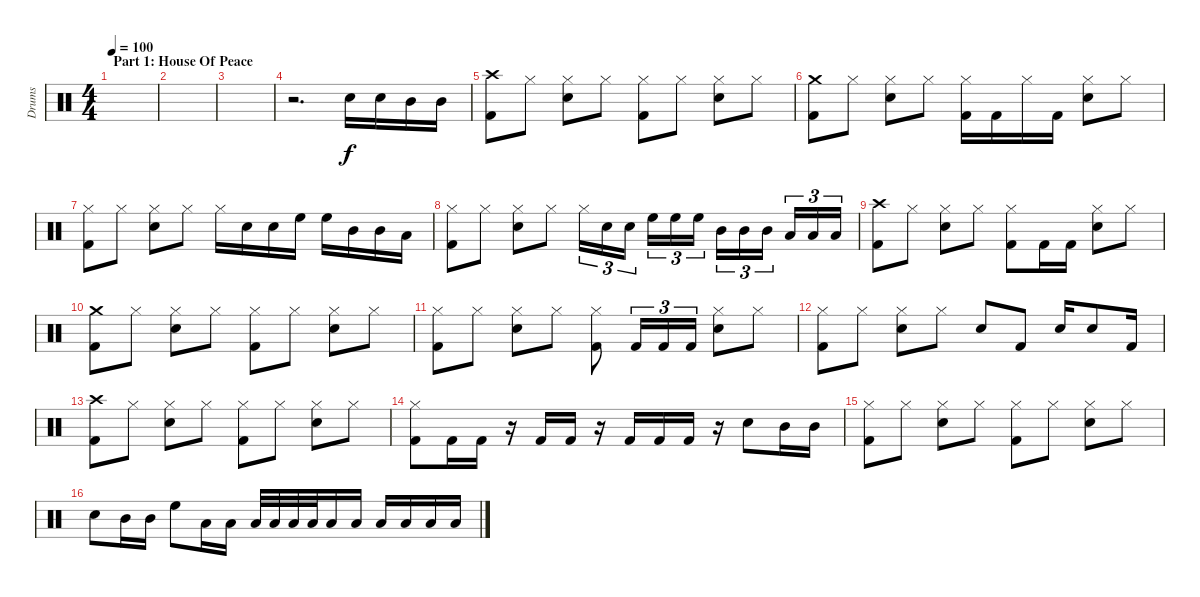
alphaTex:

\track ("Drums" "Drums") {instrument percussion}
\staff {score}
\articulation defaults
\ts (4 4)
\section ("" "Part 1: House Of Peace")
\tempo 100
\clef neutral
\ks c
|
|
|
r.2{d} "Snare (hit) 2".16 "Snare (hit) 2".16 "Mid Tom (hit)".16 "Mid Tom (hit)".16 |
("Crash high (hit)" "Kick (hit) 2").8 "Hi-Hat (closed)".8 ("Hi-Hat (closed)" "Snare (hit) 2").8 "Hi-Hat (closed)".8 ("Hi-Hat (closed)" "Kick (hit) 2").8 "Hi-Hat (closed)".8 ("Hi-Hat (closed)" "Snare (hit) 2").8 "Hi-Hat (closed)".8 |
("Kick (hit) 2" "Crash medium (hit)").8 "Hi-Hat (closed)".8 ("Hi-Hat (closed)" "Snare (hit) 2").8 "Hi-Hat (closed)".8 ("Hi-Hat (closed)" "Kick (hit) 2").16 "Kick (hit) 2".16 "Hi-Hat (closed)".16 "Kick (hit) 2".16 ("Hi-Hat (closed)" "Snare (hit) 2").8 "Hi-Hat (closed)".8 |
("Hi-Hat (closed)" "Kick (hit) 2").8 "Hi-Hat (closed)".8 ("Hi-Hat (closed)" "Snare (hit) 2").8 "Hi-Hat (closed)".8 "Hi-Hat (closed)".16 "Snare (hit) 2".16 "Snare (hit) 2".16 "High Floor Tom (hit)".16 "High Floor Tom (hit)".16 "Mid Tom (hit)".16 "Mid Tom (hit)".16 "Low Tom (hit)".16 |
("Hi-Hat (closed)" "Kick (hit) 2").8 "Hi-Hat (closed)".8 ("Snare (hit) 2" "Hi-Hat (closed)").8 "Hi-Hat (closed)".8 "Hi-Hat (closed)".16{tu (3 2)} "Snare (hit) 2".16{tu (3 2)} "Snare (hit) 2".16{tu (3 2)} "High Floor Tom (hit)".16{tu (3 2)} "High Floor Tom (hit)".16{tu (3 2)} "High Floor Tom (hit)".16{tu (3 2)} "Mid Tom (hit)".16{tu (3 2)} "Mid Tom (hit)".16{tu (3 2)} "Mid Tom (hit)".16{tu (3 2)} "Low Tom (hit)".16{tu (3 2)} "Low Tom (hit)".16{tu (3 2)} "Low Tom (hit)".16{tu (3 2)} |
("Crash high (hit)" "Kick (hit) 2").8 "Hi-Hat (closed)".8 ("Hi-Hat (closed)" "Snare (hit) 2").8 "Hi-Hat (closed)".8 ("Hi-Hat (closed)" "Kick (hit) 2").8 "Kick (hit) 2".16 "Kick (hit) 2".16 ("Hi-Hat (closed)" "Snare (hit) 2").8 "Hi-Hat (closed)".8 |
("Crash medium (hit)" "Kick (hit) 2").8 "Hi-Hat (closed)".8 ("Hi-Hat (closed)" "Snare (hit) 2").8 "Hi-Hat (closed)".8 ("Hi-Hat (closed)" "Kick (hit) 2").8 "Hi-Hat (closed)".8 ("Hi-Hat (closed)" "Snare (hit) 2").8 "Hi-Hat (closed)".8 |
("Hi-Hat (closed)" "Kick (hit) 2").8 "Hi-Hat (closed)".8 ("Hi-Hat (closed)" "Snare (hit) 2").8 "Hi-Hat (closed)".8 ("Hi-Hat (closed)" "Kick (hit) 2").8 "Kick (hit) 2".16{tu (3 2)} "Kick (hit) 2".16{tu (3 2)} "Kick (hit) 2".16{tu (3 2)} ("Hi-Hat (closed)" "Snare (hit) 2").8 "Hi-Hat (closed)".8 |
("Hi-Hat (closed)" "Kick (hit) 2").8 "Hi-Hat (closed)".8 ("Hi-Hat (closed)" "Snare (hit) 2").8 "Hi-Hat (closed)".8 "Snare (hit) 2".8 "Kick (hit) 2".8 "Snare (hit) 2".16 "Snare (hit) 2".8 "Kick (hit) 2".16 |
("Crash high (hit)" "Kick (hit) 2").8 "Hi-Hat (closed)".8 ("Hi-Hat (closed)" "Snare (hit) 2").8 "Hi-Hat (closed)".8 ("Hi-Hat (closed)" "Kick (hit) 2").8 "Hi-Hat (closed)".8 ("Hi-Hat (closed)" "Snare (hit) 2").8 "Hi-Hat (closed)".8 |
("Hi-Hat (closed)" "Kick (hit) 2").8 "Kick (hit) 2".16 "Kick (hit) 2".16 r.16 "Kick (hit) 2".16 "Kick (hit) 2".16 r.16 "Kick (hit) 2".16 "Kick (hit) 2".16 "Kick (hit) 2".16 r.16 "Snare (hit) 2".8 "Mid Tom (hit)".16 "Mid Tom (hit)".16 |
("Hi-Hat (closed)" "Kick (hit) 2").8 "Hi-Hat (closed)".8 ("Hi-Hat (closed)" "Snare (hit) 2").8 "Hi-Hat (closed)".8 ("Hi-Hat (closed)" "Kick (hit) 2").8 "Hi-Hat (closed)".8 ("Hi-Hat (closed)" "Snare (hit) 2").8 "Hi-Hat (closed)".8 |
"Snare (hit) 2".8 "Mid Tom (hit)".16 "Mid Tom (hit)".16 "High Floor Tom (hit)".8 "Low Tom (hit)".16 "Low Tom (hit)".16 "Low Tom (hit)".32 "Low Tom (hit)".32 "Low Tom (hit)".32 "Low Tom (hit)".32 "Low Floor Tom (hit)".16 "Low Floor Tom (hit)".16 "Low Floor Tom (hit)".16 "Low Floor Tom (hit)".16 "Low Floor Tom (hit)".16 "Low Floor Tom (hit)".16
